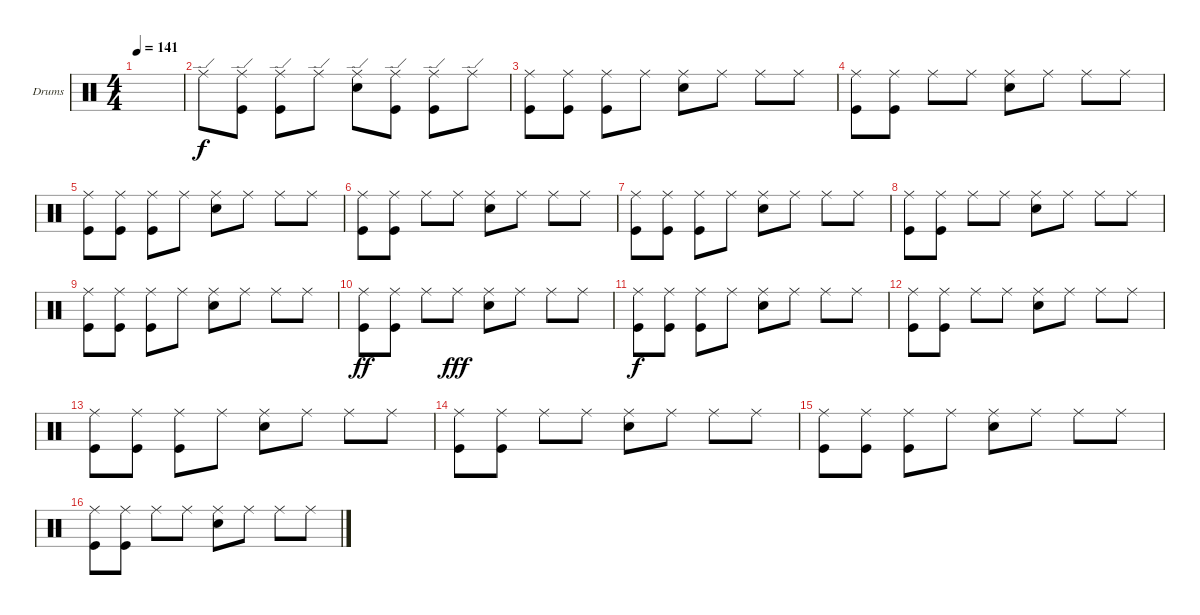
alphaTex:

\bracketExtendMode groupsimilarinstruments
\firstSystemTrackNameOrientation horizontal
\otherSystemsTrackNameOrientation horizontal
\track ("Drumkit" "Drums") {instrument percussion}
\staff {score}
\articulation defaults
\ts (4 4)
\tempo 141
\clef neutral
\ks c
|
"Ride (edge)".8 ("Kick (hit)" "Ride (edge)").8 ("Ride (edge)" "Kick (hit)").8 "Ride (edge)".8 ("Ride (edge)" "Snare (hit) 2").8 ("Kick (hit)" "Ride (edge)").8 ("Ride (edge)" "Kick (hit)").8 "Ride (edge)".8 |
("Ride (middle)" "Kick (hit)").8 ("Ride (middle)" "Kick (hit)").8 ("Ride (middle)" "Kick (hit)").8 "Ride (middle)".8 ("Ride (middle)" "Snare (hit) 2").8 "Ride (middle)".8 "Ride (middle)".8 "Ride (middle)".8 |
("Ride (middle)" "Kick (hit)").8 ("Ride (middle)" "Kick (hit)").8 "Ride (middle)".8 "Ride (middle)".8 ("Ride (middle)" "Snare (hit) 2").8 "Ride (middle)".8 "Ride (middle)".8 "Ride (middle)".8 |
("Ride (middle)" "Kick (hit)").8 ("Ride (middle)" "Kick (hit)").8 ("Ride (middle)" "Kick (hit)").8 "Ride (middle)".8 ("Ride (middle)" "Snare (hit) 2").8 "Ride (middle)".8 "Ride (middle)".8 "Ride (middle)".8 |
("Ride (middle)" "Kick (hit)").8 ("Ride (middle)" "Kick (hit)").8 "Ride (middle)".8 "Ride (middle)".8 ("Ride (middle)" "Snare (hit) 2").8 "Ride (middle)".8 "Ride (middle)".8 "Ride (middle)".8 |
("Ride (middle)" "Kick (hit)").8 ("Ride (middle)" "Kick (hit)").8 ("Ride (middle)" "Kick (hit)").8 "Ride (middle)".8 ("Ride (middle)" "Snare (hit) 2").8 "Ride (middle)".8 "Ride (middle)".8 "Ride (middle)".8 |
("Ride (middle)" "Kick (hit)").8 ("Ride (middle)" "Kick (hit)").8 "Ride (middle)".8 "Ride (middle)".8 ("Ride (middle)" "Snare (hit) 2").8 "Ride (middle)".8 "Ride (middle)".8 "Ride (middle)".8 |
("Ride (middle)" "Kick (hit)").8 ("Ride (middle)" "Kick (hit)").8 ("Ride (middle)" "Kick (hit)").8 "Ride (middle)".8 ("Ride (middle)" "Snare (hit) 2").8 "Ride (middle)".8 "Ride (middle)".8 "Ride (middle)".8 |
("Ride (middle)" "Kick (hit)").8{dy ff} ("Ride (middle)" "Kick (hit)").8 "Ride (middle)".8 "Ride (middle)".8{dy fff} ("Ride (middle)" "Snare (hit) 2").8 "Ride (middle)".8 "Ride (middle)".8 "Ride (middle)".8 |
("Ride (middle)" "Kick (hit)").8{dy f} ("Ride (middle)" "Kick (hit)").8 ("Ride (middle)" "Kick (hit)").8 "Ride (middle)".8 ("Ride (middle)" "Snare (hit) 2").8 "Ride (middle)".8 "Ride (middle)".8 "Ride (middle)".8 |
("Ride (middle)" "Kick (hit)").8 ("Ride (middle)" "Kick (hit)").8 "Ride (middle)".8 "Ride (middle)".8 ("Ride (middle)" "Snare (hit) 2").8 "Ride (middle)".8 "Ride (middle)".8 "Ride (middle)".8 |
("Ride (middle)" "Kick (hit)").8 ("Ride (middle)" "Kick (hit)").8 ("Ride (middle)" "Kick (hit)").8 "Ride (middle)".8 ("Ride (middle)" "Snare (hit) 2").8 "Ride (middle)".8 "Ride (middle)".8 "Ride (middle)".8 |
("Ride (middle)" "Kick (hit)").8 ("Ride (middle)" "Kick (hit)").8 "Ride (middle)".8 "Ride (middle)".8 ("Ride (middle)" "Snare (hit) 2").8 "Ride (middle)".8 "Ride (middle)".8 "Ride (middle)".8 |
("Ride (middle)" "Kick (hit)").8 ("Ride (middle)" "Kick (hit)").8 ("Ride (middle)" "Kick (hit)").8 "Ride (middle)".8 ("Ride (middle)" "Snare (hit) 2").8 "Ride (middle)".8 "Ride (middle)".8 "Ride (middle)".8 |
("Ride (middle)" "Kick (hit)").8 ("Ride (middle)" "Kick (hit)").8 "Ride (middle)".8 "Ride (middle)".8 ("Ride (middle)" "Snare (hit) 2").8 "Ride (middle)".8 "Ride (middle)".8 "Ride (middle)".8
